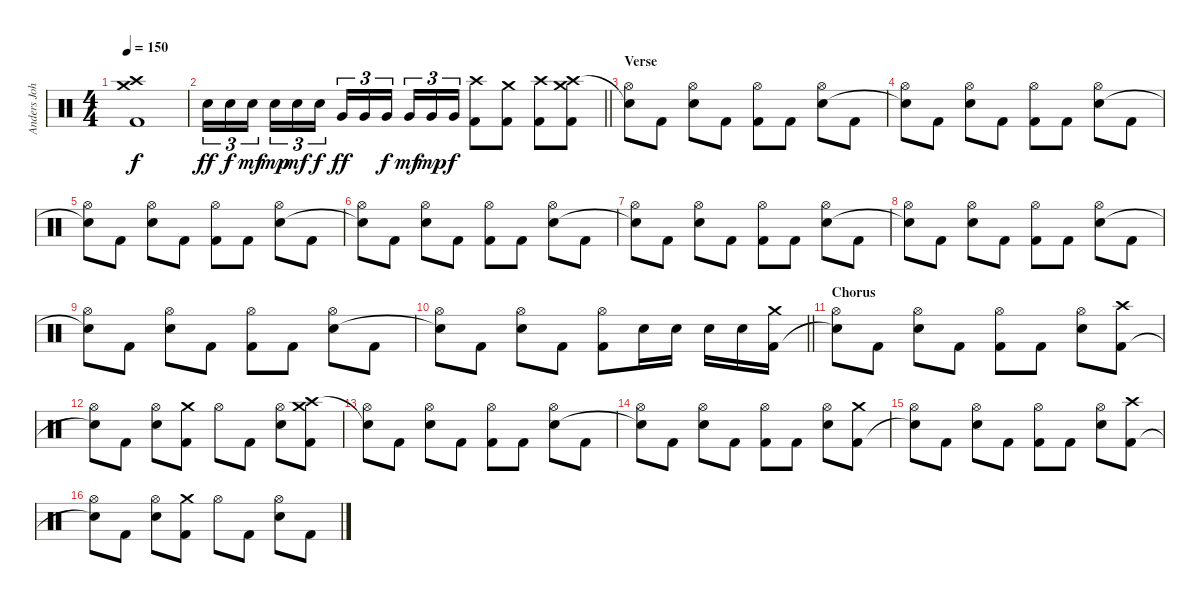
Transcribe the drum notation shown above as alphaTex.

\track ("Anders Johansson" "Anders Joh") {instrument percussion}
\staff {score}
\articulation defaults
\ts (4 4)
\tempo 150
\clef neutral
\ks c
("Crash medium (hit)" "Crash high (hit)" "Kick (hit) 2").1{dy f} |
\barLineRight lightlight "Snare (hit) 2".16{tu (3 2) dy ff} "Snare (hit) 2".16{tu (3 2) dy f} "Snare (hit) 2".16{tu (3 2) dy mf beam splitsecondary} "Snare (hit) 2".16{tu (3 2) dy mp} "Snare (hit) 2".16{tu (3 2) dy mf} "Snare (hit) 2".16{tu (3 2) dy f} "Very Low Tom (hit)".16{tu (3 2) dy ff} "Very Low Tom (hit)".16{tu (3 2)} "Very Low Tom (hit)".16{tu (3 2) dy f beam splitsecondary} "Very Low Tom (hit)".16{tu (3 2) dy mf} "Very Low Tom (hit)".16{tu (3 2) dy mp} "Very Low Tom (hit)".16{tu (3 2) dy f}
("Crash high (hit)" "Kick (hit) 2").8 ("Crash medium (hit)" "Kick (hit) 2").8 ("Crash high (hit)" "Kick (hit) 2").8 ("Crash medium (hit)" "Crash high (hit)" "Kick (hit) 2").8 |
\section ("" "Verse")
("Hi-Hat (open)" "Snare (hit)"{t}).8 "Kick (hit) 2".8 ("Hi-Hat (open)" "Electric Snare (hit)").8 "Kick (hit) 2".8 ("Hi-Hat (open)" "Kick (hit) 2").8 "Kick (hit) 2".8 ("Hi-Hat (open)" "Electric Snare (hit)").8 "Kick (hit) 2".8 |
("Hi-Hat (open)" "Snare (hit)"{t}).8 "Kick (hit) 2".8 ("Hi-Hat (open)" "Electric Snare (hit)").8 "Kick (hit) 2".8 ("Hi-Hat (open)" "Kick (hit) 2").8 "Kick (hit) 2".8 ("Hi-Hat (open)" "Electric Snare (hit)").8 "Kick (hit) 2".8 |
("Hi-Hat (open)" "Snare (hit)"{t}).8 "Kick (hit) 2".8 ("Hi-Hat (open)" "Electric Snare (hit)").8 "Kick (hit) 2".8 ("Hi-Hat (open)" "Kick (hit) 2").8 "Kick (hit) 2".8 ("Hi-Hat (open)" "Electric Snare (hit)").8 "Kick (hit) 2".8 |
("Hi-Hat (open)" "Snare (hit)"{t}).8 "Kick (hit) 2".8 ("Hi-Hat (open)" "Electric Snare (hit)").8 "Kick (hit) 2".8 ("Hi-Hat (open)" "Kick (hit) 2").8 "Kick (hit) 2".8 ("Hi-Hat (open)" "Electric Snare (hit)").8 "Kick (hit) 2".8 |
("Hi-Hat (open)" "Snare (hit)"{t}).8 "Kick (hit) 2".8 ("Hi-Hat (open)" "Electric Snare (hit)").8 "Kick (hit) 2".8 ("Hi-Hat (open)" "Kick (hit) 2").8 "Kick (hit) 2".8 ("Hi-Hat (open)" "Electric Snare (hit)").8 "Kick (hit) 2".8 |
("Hi-Hat (open)" "Snare (hit)"{t}).8 "Kick (hit) 2".8 ("Hi-Hat (open)" "Electric Snare (hit)").8 "Kick (hit) 2".8 ("Hi-Hat (open)" "Kick (hit) 2").8 "Kick (hit) 2".8 ("Hi-Hat (open)" "Electric Snare (hit)").8 "Kick (hit) 2".8 |
("Hi-Hat (open)" "Snare (hit)"{t}).8 "Kick (hit) 2".8 ("Hi-Hat (open)" "Electric Snare (hit)").8 "Kick (hit) 2".8 ("Hi-Hat (open)" "Kick (hit) 2").8 "Kick (hit) 2".8 ("Hi-Hat (open)" "Electric Snare (hit)").8 "Kick (hit) 2".8 |
\barLineRight lightlight
("Hi-Hat (open)" "Snare (hit)"{t}).8 "Kick (hit) 2".8 ("Hi-Hat (open)" "Electric Snare (hit)").8 "Kick (hit) 2".8 ("Hi-Hat (open)" "Kick (hit) 2").8 "Snare (hit) 2".16 "Snare (hit) 2".16 "Snare (hit) 2".16 "Snare (hit) 2".16 ("Crash medium (hit)" "Kick (hit) 2").16 |
\section ("" "Chorus")
("Hi-Hat (open)" "Snare (hit)"{t}).8 "Kick (hit) 2".8 ("Hi-Hat (open)" "Electric Snare (hit)").8 "Kick (hit) 2".8 ("Hi-Hat (open)" "Kick (hit) 2").8 "Kick (hit) 2".8 ("Hi-Hat (open)" "Electric Snare (hit)").8 ("Crash high (hit)" "Kick (hit) 2").8 |
("Hi-Hat (open)" "Snare (hit)"{t}).8 "Kick (hit) 2".8 ("Hi-Hat (open)" "Electric Snare (hit)").8 ("Crash medium (hit)" "Kick (hit) 2").8 "Hi-Hat (open)".8 "Kick (hit) 2".8 ("Hi-Hat (open)" "Electric Snare (hit)").8 ("Crash medium (hit)" "Crash high (hit)" "Kick (hit) 2").8 |
("Hi-Hat (open)" "Snare (hit)"{t}).8 "Kick (hit) 2".8 ("Hi-Hat (open)" "Electric Snare (hit)").8 "Kick (hit) 2".8 ("Hi-Hat (open)" "Kick (hit) 2").8 "Kick (hit) 2".8 ("Hi-Hat (open)" "Electric Snare (hit)").8 "Kick (hit) 2".8 |
("Hi-Hat (open)" "Snare (hit)"{t}).8 "Kick (hit) 2".8 ("Hi-Hat (open)" "Electric Snare (hit)").8 "Kick (hit) 2".8 ("Hi-Hat (open)" "Kick (hit) 2").8 "Kick (hit) 2".8 ("Hi-Hat (open)" "Electric Snare (hit)").8 ("Crash medium (hit)" "Kick (hit) 2").8 |
("Hi-Hat (open)" "Snare (hit)"{t}).8 "Kick (hit) 2".8 ("Hi-Hat (open)" "Electric Snare (hit)").8 "Kick (hit) 2".8 ("Hi-Hat (open)" "Kick (hit) 2").8 "Kick (hit) 2".8 ("Hi-Hat (open)" "Electric Snare (hit)").8 ("Crash high (hit)" "Kick (hit) 2").8 |
("Hi-Hat (open)" "Snare (hit)"{t}).8 "Kick (hit) 2".8 ("Hi-Hat (open)" "Electric Snare (hit)").8 ("Crash medium (hit)" "Kick (hit) 2").8 "Hi-Hat (open)".8 "Kick (hit) 2".8 ("Hi-Hat (open)" "Electric Snare (hit)").8 "Kick (hit) 2".8
